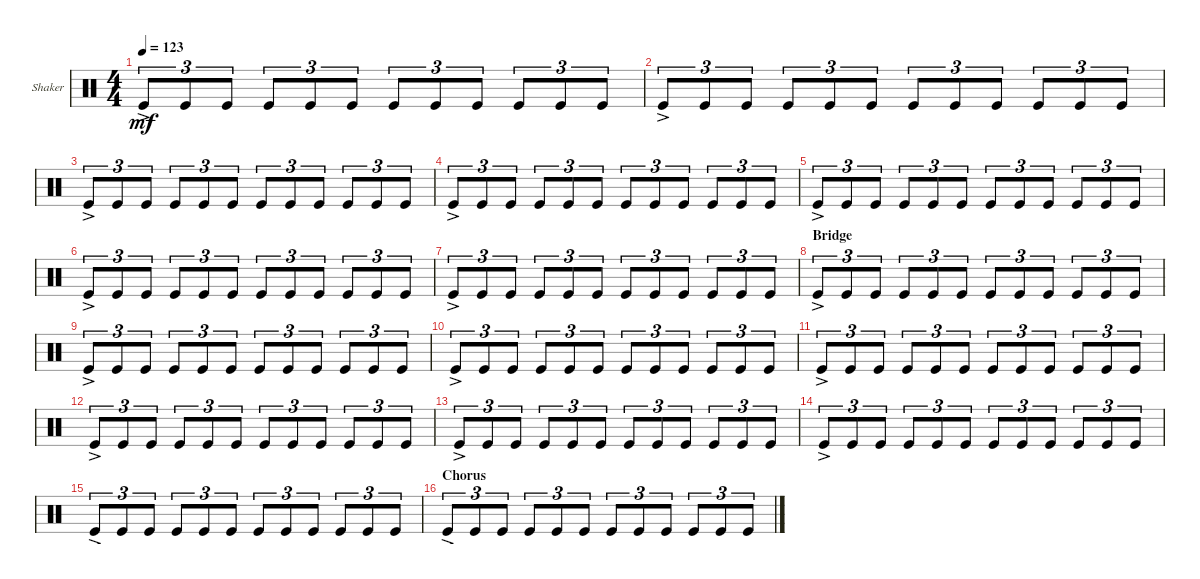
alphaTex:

\defaultSystemsLayout 4
\bracketExtendMode groupsimilarinstruments
\firstSystemTrackNameOrientation horizontal
\otherSystemsTrackNameOrientation horizontal
\track ("Shaker" "Shaker") {multiBarRest instrument percussion}
\staff {score}
\articulation defaults
\ts (4 4)
\tempo 123
\clef neutral
\ks c "Kick (hit)"{ac}.8{tu (3 2) dy mf} "Kick (hit)".8{tu (3 2)} "Kick (hit)".8{tu (3 2)} "Kick (hit)".8{tu (3 2)} "Kick (hit)".8{tu (3 2)} "Kick (hit)".8{tu (3 2)} "Kick (hit)".8{tu (3 2)} "Kick (hit)".8{tu (3 2)} "Kick (hit)".8{tu (3 2)} "Kick (hit)".8{tu (3 2)} "Kick (hit)".8{tu (3 2)} "Kick (hit)".8{tu (3 2)}
|
"Kick (hit)"{ac}.8{tu (3 2)} "Kick (hit)".8{tu (3 2)} "Kick (hit)".8{tu (3 2)} "Kick (hit)".8{tu (3 2)} "Kick (hit)".8{tu (3 2)} "Kick (hit)".8{tu (3 2)} "Kick (hit)".8{tu (3 2)} "Kick (hit)".8{tu (3 2)} "Kick (hit)".8{tu (3 2)} "Kick (hit)".8{tu (3 2)} "Kick (hit)".8{tu (3 2)} "Kick (hit)".8{tu (3 2)} |
"Kick (hit)"{ac}.8{tu (3 2)} "Kick (hit)".8{tu (3 2)} "Kick (hit)".8{tu (3 2)} "Kick (hit)".8{tu (3 2)} "Kick (hit)".8{tu (3 2)} "Kick (hit)".8{tu (3 2)} "Kick (hit)".8{tu (3 2)} "Kick (hit)".8{tu (3 2)} "Kick (hit)".8{tu (3 2)} "Kick (hit)".8{tu (3 2)} "Kick (hit)".8{tu (3 2)} "Kick (hit)".8{tu (3 2)} |
"Kick (hit)"{ac}.8{tu (3 2)} "Kick (hit)".8{tu (3 2)} "Kick (hit)".8{tu (3 2)} "Kick (hit)".8{tu (3 2)} "Kick (hit)".8{tu (3 2)} "Kick (hit)".8{tu (3 2)} "Kick (hit)".8{tu (3 2)} "Kick (hit)".8{tu (3 2)} "Kick (hit)".8{tu (3 2)} "Kick (hit)".8{tu (3 2)} "Kick (hit)".8{tu (3 2)} "Kick (hit)".8{tu (3 2)} |
"Kick (hit)"{ac}.8{tu (3 2)} "Kick (hit)".8{tu (3 2)} "Kick (hit)".8{tu (3 2)} "Kick (hit)".8{tu (3 2)} "Kick (hit)".8{tu (3 2)} "Kick (hit)".8{tu (3 2)} "Kick (hit)".8{tu (3 2)} "Kick (hit)".8{tu (3 2)} "Kick (hit)".8{tu (3 2)} "Kick (hit)".8{tu (3 2)} "Kick (hit)".8{tu (3 2)} "Kick (hit)".8{tu (3 2)} |
"Kick (hit)"{ac}.8{tu (3 2)} "Kick (hit)".8{tu (3 2)} "Kick (hit)".8{tu (3 2)} "Kick (hit)".8{tu (3 2)} "Kick (hit)".8{tu (3 2)} "Kick (hit)".8{tu (3 2)} "Kick (hit)".8{tu (3 2)} "Kick (hit)".8{tu (3 2)} "Kick (hit)".8{tu (3 2)} "Kick (hit)".8{tu (3 2)} "Kick (hit)".8{tu (3 2)} "Kick (hit)".8{tu (3 2)} |
"Kick (hit)"{ac}.8{tu (3 2)} "Kick (hit)".8{tu (3 2)} "Kick (hit)".8{tu (3 2)} "Kick (hit)".8{tu (3 2)} "Kick (hit)".8{tu (3 2)} "Kick (hit)".8{tu (3 2)} "Kick (hit)".8{tu (3 2)} "Kick (hit)".8{tu (3 2)} "Kick (hit)".8{tu (3 2)} "Kick (hit)".8{tu (3 2)} "Kick (hit)".8{tu (3 2)} "Kick (hit)".8{tu (3 2)} |
\section ("" "Bridge")
"Kick (hit)"{ac}.8{tu (3 2)} "Kick (hit)".8{tu (3 2)} "Kick (hit)".8{tu (3 2)} "Kick (hit)".8{tu (3 2)} "Kick (hit)".8{tu (3 2)} "Kick (hit)".8{tu (3 2)} "Kick (hit)".8{tu (3 2)} "Kick (hit)".8{tu (3 2)} "Kick (hit)".8{tu (3 2)} "Kick (hit)".8{tu (3 2)} "Kick (hit)".8{tu (3 2)} "Kick (hit)".8{tu (3 2)} |
"Kick (hit)"{ac}.8{tu (3 2)} "Kick (hit)".8{tu (3 2)} "Kick (hit)".8{tu (3 2)} "Kick (hit)".8{tu (3 2)} "Kick (hit)".8{tu (3 2)} "Kick (hit)".8{tu (3 2)} "Kick (hit)".8{tu (3 2)} "Kick (hit)".8{tu (3 2)} "Kick (hit)".8{tu (3 2)} "Kick (hit)".8{tu (3 2)} "Kick (hit)".8{tu (3 2)} "Kick (hit)".8{tu (3 2)} |
"Kick (hit)"{ac}.8{tu (3 2)} "Kick (hit)".8{tu (3 2)} "Kick (hit)".8{tu (3 2)} "Kick (hit)".8{tu (3 2)} "Kick (hit)".8{tu (3 2)} "Kick (hit)".8{tu (3 2)} "Kick (hit)".8{tu (3 2)} "Kick (hit)".8{tu (3 2)} "Kick (hit)".8{tu (3 2)} "Kick (hit)".8{tu (3 2)} "Kick (hit)".8{tu (3 2)} "Kick (hit)".8{tu (3 2)} |
"Kick (hit)"{ac}.8{tu (3 2)} "Kick (hit)".8{tu (3 2)} "Kick (hit)".8{tu (3 2)} "Kick (hit)".8{tu (3 2)} "Kick (hit)".8{tu (3 2)} "Kick (hit)".8{tu (3 2)} "Kick (hit)".8{tu (3 2)} "Kick (hit)".8{tu (3 2)} "Kick (hit)".8{tu (3 2)} "Kick (hit)".8{tu (3 2)} "Kick (hit)".8{tu (3 2)} "Kick (hit)".8{tu (3 2)} |
"Kick (hit)"{ac}.8{tu (3 2)} "Kick (hit)".8{tu (3 2)} "Kick (hit)".8{tu (3 2)} "Kick (hit)".8{tu (3 2)} "Kick (hit)".8{tu (3 2)} "Kick (hit)".8{tu (3 2)} "Kick (hit)".8{tu (3 2)} "Kick (hit)".8{tu (3 2)} "Kick (hit)".8{tu (3 2)} "Kick (hit)".8{tu (3 2)} "Kick (hit)".8{tu (3 2)} "Kick (hit)".8{tu (3 2)} |
"Kick (hit)"{ac}.8{tu (3 2)} "Kick (hit)".8{tu (3 2)} "Kick (hit)".8{tu (3 2)} "Kick (hit)".8{tu (3 2)} "Kick (hit)".8{tu (3 2)} "Kick (hit)".8{tu (3 2)} "Kick (hit)".8{tu (3 2)} "Kick (hit)".8{tu (3 2)} "Kick (hit)".8{tu (3 2)} "Kick (hit)".8{tu (3 2)} "Kick (hit)".8{tu (3 2)} "Kick (hit)".8{tu (3 2)} |
"Kick (hit)"{ac}.8{tu (3 2)} "Kick (hit)".8{tu (3 2)} "Kick (hit)".8{tu (3 2)} "Kick (hit)".8{tu (3 2)} "Kick (hit)".8{tu (3 2)} "Kick (hit)".8{tu (3 2)} "Kick (hit)".8{tu (3 2)} "Kick (hit)".8{tu (3 2)} "Kick (hit)".8{tu (3 2)} "Kick (hit)".8{tu (3 2)} "Kick (hit)".8{tu (3 2)} "Kick (hit)".8{tu (3 2)} |
"Kick (hit)"{ac}.8{tu (3 2)} "Kick (hit)".8{tu (3 2)} "Kick (hit)".8{tu (3 2)} "Kick (hit)".8{tu (3 2)} "Kick (hit)".8{tu (3 2)} "Kick (hit)".8{tu (3 2)} "Kick (hit)".8{tu (3 2)} "Kick (hit)".8{tu (3 2)} "Kick (hit)".8{tu (3 2)} "Kick (hit)".8{tu (3 2)} "Kick (hit)".8{tu (3 2)} "Kick (hit)".8{tu (3 2)} |
\section ("" "Chorus")
"Kick (hit)"{ac}.8{tu (3 2)} "Kick (hit)".8{tu (3 2)} "Kick (hit)".8{tu (3 2)} "Kick (hit)".8{tu (3 2)} "Kick (hit)".8{tu (3 2)} "Kick (hit)".8{tu (3 2)} "Kick (hit)".8{tu (3 2)} "Kick (hit)".8{tu (3 2)} "Kick (hit)".8{tu (3 2)} "Kick (hit)".8{tu (3 2)} "Kick (hit)".8{tu (3 2)} "Kick (hit)".8{tu (3 2)}
